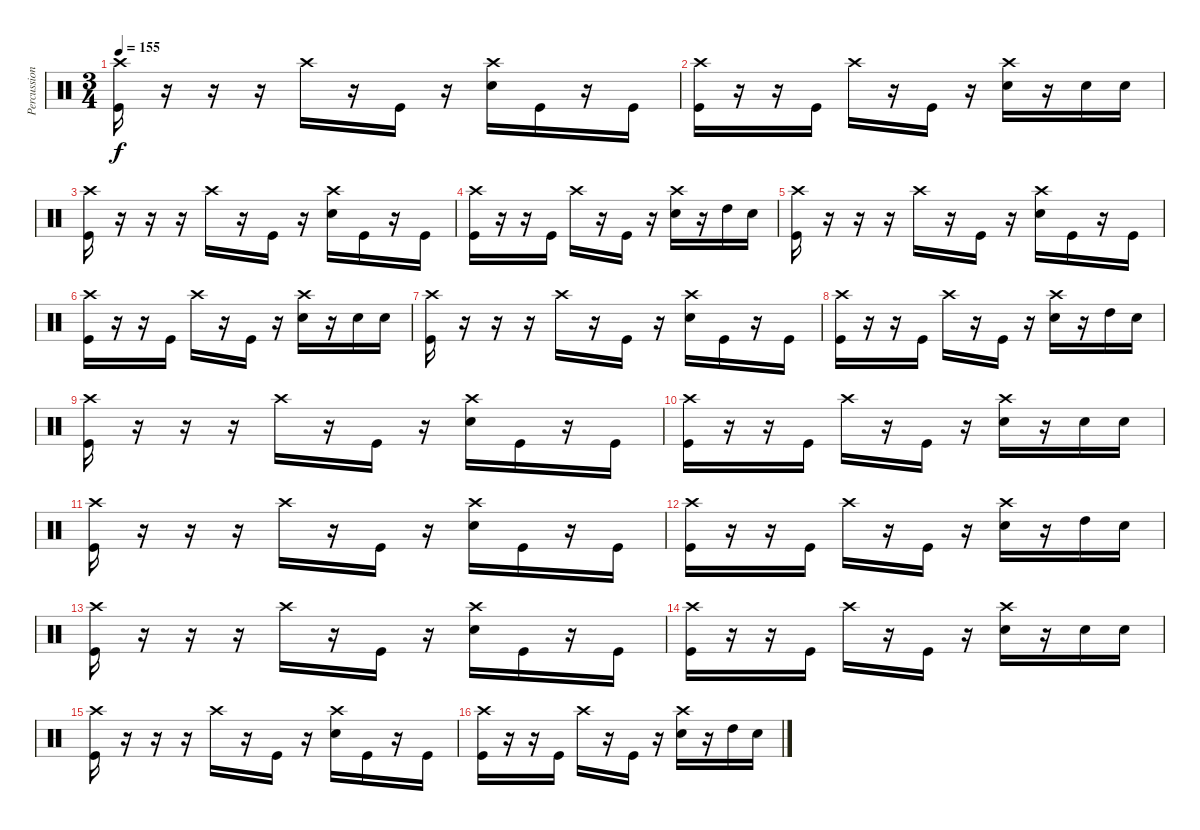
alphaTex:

\track ("Percussion" "Percussion") {instrument percussion}
\staff {score}
\articulation defaults
\ts (3 4)
\tempo 155
\clef neutral
\ks c
("Crash high (hit)" "Kick (hit)").16{dy f} r.16 r.16 r.16 "Crash high (hit)".16 r.16 "Kick (hit)".16 r.16 ("Crash high (hit)" "Snare (hit) 2").16 "Kick (hit)".16 r.16 "Kick (hit)".16 |
("Crash high (hit)" "Kick (hit)").16 r.16 r.16 "Kick (hit)".16 "Crash high (hit)".16 r.16 "Kick (hit)".16 r.16 ("Crash high (hit)" "Snare (hit) 2").16 r.16 "Snare (hit) 2".16 "Snare (hit) 2".16 |
("Crash high (hit)" "Kick (hit)").16 r.16 r.16 r.16 "Crash high (hit)".16 r.16 "Kick (hit)".16 r.16 ("Crash high (hit)" "Snare (hit) 2").16 "Kick (hit)".16 r.16 "Kick (hit)".16 |
("Crash high (hit)" "Kick (hit)").16 r.16 r.16 "Kick (hit)".16 "Crash high (hit)".16 r.16 "Kick (hit)".16 r.16 ("Crash high (hit)" "Snare (hit) 2").16 r.16 "High Tom (hit)".16 "Snare (hit) 2".16 |
("Crash high (hit)" "Kick (hit)").16 r.16 r.16 r.16 "Crash high (hit)".16 r.16 "Kick (hit)".16 r.16 ("Crash high (hit)" "Snare (hit) 2").16 "Kick (hit)".16 r.16 "Kick (hit)".16 |
("Crash high (hit)" "Kick (hit)").16 r.16 r.16 "Kick (hit)".16 "Crash high (hit)".16 r.16 "Kick (hit)".16 r.16 ("Crash high (hit)" "Snare (hit) 2").16 r.16 "Snare (hit) 2".16 "Snare (hit) 2".16 |
("Crash high (hit)" "Kick (hit)").16 r.16 r.16 r.16 "Crash high (hit)".16 r.16 "Kick (hit)".16 r.16 ("Crash high (hit)" "Snare (hit) 2").16 "Kick (hit)".16 r.16 "Kick (hit)".16 |
("Crash high (hit)" "Kick (hit)").16 r.16 r.16 "Kick (hit)".16 "Crash high (hit)".16 r.16 "Kick (hit)".16 r.16 ("Crash high (hit)" "Snare (hit) 2").16 r.16 "High Tom (hit)".16 "Snare (hit) 2".16 |
("Crash high (hit)" "Kick (hit)").16 r.16 r.16 r.16 "Crash high (hit)".16 r.16 "Kick (hit)".16 r.16 ("Crash high (hit)" "Snare (hit) 2").16 "Kick (hit)".16 r.16 "Kick (hit)".16 |
("Crash high (hit)" "Kick (hit)").16 r.16 r.16 "Kick (hit)".16 "Crash high (hit)".16 r.16 "Kick (hit)".16 r.16 ("Crash high (hit)" "Snare (hit) 2").16 r.16 "Snare (hit) 2".16 "Snare (hit) 2".16 |
("Crash high (hit)" "Kick (hit)").16 r.16 r.16 r.16 "Crash high (hit)".16 r.16 "Kick (hit)".16 r.16 ("Crash high (hit)" "Snare (hit) 2").16 "Kick (hit)".16 r.16 "Kick (hit)".16 |
("Crash high (hit)" "Kick (hit)").16 r.16 r.16 "Kick (hit)".16 "Crash high (hit)".16 r.16 "Kick (hit)".16 r.16 ("Crash high (hit)" "Snare (hit) 2").16 r.16 "High Tom (hit)".16 "Snare (hit) 2".16 |
("Crash high (hit)" "Kick (hit)").16 r.16 r.16 r.16 "Crash high (hit)".16 r.16 "Kick (hit)".16 r.16 ("Crash high (hit)" "Snare (hit) 2").16 "Kick (hit)".16 r.16 "Kick (hit)".16 |
("Crash high (hit)" "Kick (hit)").16 r.16 r.16 "Kick (hit)".16 "Crash high (hit)".16 r.16 "Kick (hit)".16 r.16 ("Crash high (hit)" "Snare (hit) 2").16 r.16 "Snare (hit) 2".16 "Snare (hit) 2".16 |
("Crash high (hit)" "Kick (hit)").16 r.16 r.16 r.16 "Crash high (hit)".16 r.16 "Kick (hit)".16 r.16 ("Crash high (hit)" "Snare (hit) 2").16 "Kick (hit)".16 r.16 "Kick (hit)".16 |
("Crash high (hit)" "Kick (hit)").16 r.16 r.16 "Kick (hit)".16 "Crash high (hit)".16 r.16 "Kick (hit)".16 r.16 ("Crash high (hit)" "Snare (hit) 2").16 r.16 "High Tom (hit)".16 "Snare (hit) 2".16
